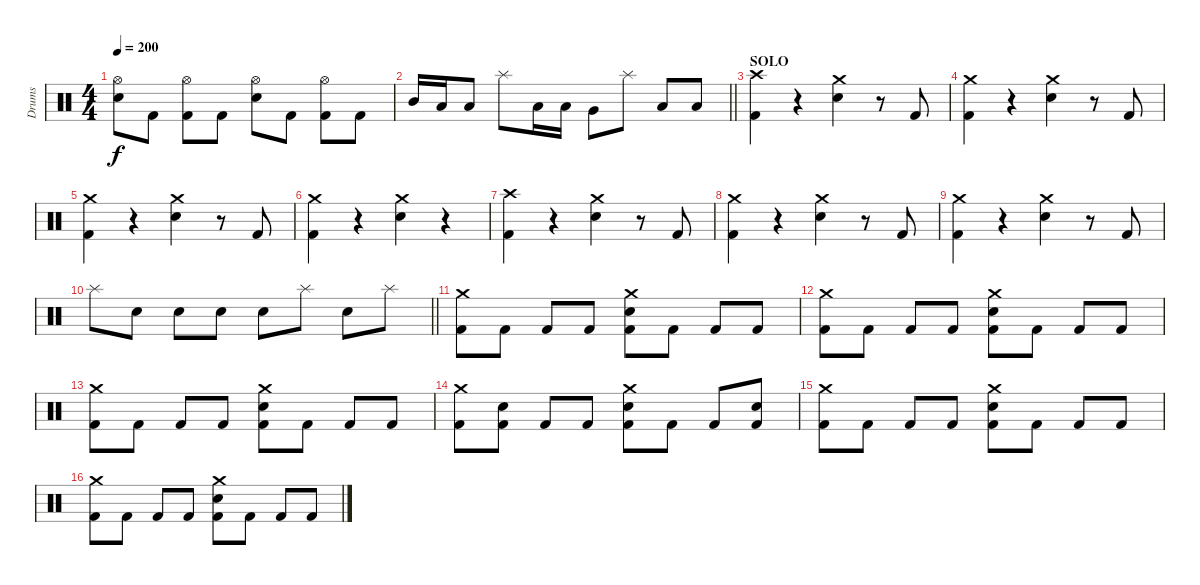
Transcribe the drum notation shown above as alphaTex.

\track ("Drums" "Drums") {instrument percussion}
\staff {score}
\articulation defaults
\ts (4 4)
\tempo 200
\clef neutral
\ks c
("Hi-Hat (open)" "Electric Snare (hit)").8{dy f} "Kick (hit) 2".8 ("Hi-Hat (open)" "Kick (hit) 2").8 "Kick (hit) 2".8 ("Hi-Hat (open)" "Electric Snare (hit)").8 "Kick (hit) 2".8 ("Hi-Hat (open)" "Kick (hit) 2").8 "Kick (hit) 2".8 |
\barLineRight lightlight "Mid Tom (hit)".16 "Low Tom (hit)".16 "Low Tom (hit)".8 "Splash (hit)".8 "Low Tom (hit)".16 "Low Tom (hit)".16 "Very Low Tom (hit)".8 "Splash (hit)".8 "Low Floor Tom (hit)".8 "Low Floor Tom (hit)".8
|
\section ("" "SOLO")
("Crash high (hit)" "Kick (hit) 2").4 r.4 ("Crash medium (hit)" "Electric Snare (hit)").4 r.8 "Kick (hit) 2".8 |
("Crash medium (hit)" "Kick (hit) 2").4 r.4 ("Crash medium (hit)" "Electric Snare (hit)").4 r.8 "Kick (hit) 2".8 |
("Crash medium (hit)" "Kick (hit) 2").4 r.4 ("Crash medium (hit)" "Electric Snare (hit)").4 r.8 "Kick (hit) 2".8 |
("Crash medium (hit)" "Kick (hit) 2").4 r.4 ("Crash medium (hit)" "Electric Snare (hit)").4 r.4 |
("Crash high (hit)" "Kick (hit) 2").4 r.4 ("Crash medium (hit)" "Electric Snare (hit)").4 r.8 "Kick (hit) 2".8 |
("Crash medium (hit)" "Kick (hit) 2").4 r.4 ("Crash medium (hit)" "Electric Snare (hit)").4 r.8 "Kick (hit) 2".8 |
("Crash medium (hit)" "Kick (hit) 2").4 r.4 ("Crash medium (hit)" "Electric Snare (hit)").4 r.8 "Kick (hit) 2".8 |
\barLineRight lightlight "Splash (hit)".8 "Electric Snare (hit)".8 "Electric Snare (hit)".8 "Electric Snare (hit)".8 "Electric Snare (hit)".8 "Splash (hit)".8 "Electric Snare (hit)".8 "Splash (hit)".8
|
("Crash medium (hit)" "Kick (hit) 2").8 "Kick (hit) 2".8 "Kick (hit) 2".8 "Kick (hit) 2".8 ("Crash medium (hit)" "Electric Snare (hit)" "Kick (hit) 2").8 "Kick (hit) 2".8 "Kick (hit) 2".8 "Kick (hit) 2".8 |
("Crash medium (hit)" "Kick (hit) 2").8 "Kick (hit) 2".8 "Kick (hit) 2".8 "Kick (hit) 2".8 ("Crash medium (hit)" "Electric Snare (hit)" "Kick (hit) 2").8 "Kick (hit) 2".8 "Kick (hit) 2".8 "Kick (hit) 2".8 |
("Crash medium (hit)" "Kick (hit) 2").8 "Kick (hit) 2".8 "Kick (hit) 2".8 "Kick (hit) 2".8 ("Crash medium (hit)" "Electric Snare (hit)" "Kick (hit) 2").8 "Kick (hit) 2".8 "Kick (hit) 2".8 "Kick (hit) 2".8 |
("Crash medium (hit)" "Kick (hit) 2").8 ("Electric Snare (hit)" "Kick (hit) 2").8 "Kick (hit) 2".8 "Kick (hit) 2".8 ("Crash medium (hit)" "Electric Snare (hit)" "Kick (hit) 2").8 "Kick (hit) 2".8 "Kick (hit) 2".8 ("Electric Snare (hit)" "Kick (hit) 2").8 |
("Crash medium (hit)" "Kick (hit) 2").8 "Kick (hit) 2".8 "Kick (hit) 2".8 "Kick (hit) 2".8 ("Crash medium (hit)" "Electric Snare (hit)" "Kick (hit) 2").8 "Kick (hit) 2".8 "Kick (hit) 2".8 "Kick (hit) 2".8 |
("Crash medium (hit)" "Kick (hit) 2").8 "Kick (hit) 2".8 "Kick (hit) 2".8 "Kick (hit) 2".8 ("Crash medium (hit)" "Electric Snare (hit)" "Kick (hit) 2").8 "Kick (hit) 2".8 "Kick (hit) 2".8 "Kick (hit) 2".8
